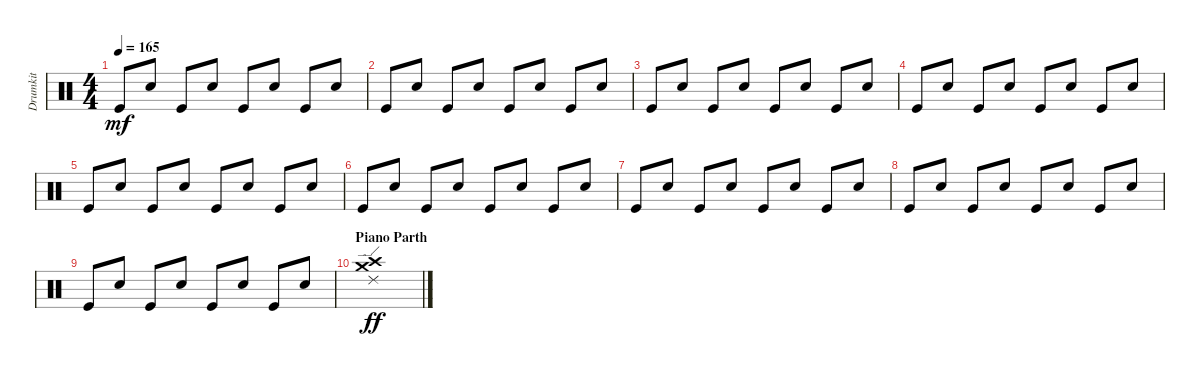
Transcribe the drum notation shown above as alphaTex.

\track ("Drumkit" "Drumkit") {instrument percussion}
\staff {score}
\articulation defaults
\ts (4 4)
\tempo 165
\clef neutral
\ks c "Kick (hit)".8{dy mf} "Electric Snare (hit)".8 "Kick (hit)".8 "Electric Snare (hit)".8 "Kick (hit)".8 "Electric Snare (hit)".8 "Kick (hit)".8 "Electric Snare (hit)".8
|
"Kick (hit)".8 "Electric Snare (hit)".8 "Kick (hit)".8 "Electric Snare (hit)".8 "Kick (hit)".8 "Electric Snare (hit)".8 "Kick (hit)".8 "Electric Snare (hit)".8 |
"Kick (hit)".8 "Electric Snare (hit)".8 "Kick (hit)".8 "Electric Snare (hit)".8 "Kick (hit)".8 "Electric Snare (hit)".8 "Kick (hit)".8 "Electric Snare (hit)".8 |
"Kick (hit)".8 "Electric Snare (hit)".8 "Kick (hit)".8 "Electric Snare (hit)".8 "Kick (hit)".8 "Electric Snare (hit)".8 "Kick (hit)".8 "Electric Snare (hit)".8 |
"Kick (hit)".8 "Electric Snare (hit)".8 "Kick (hit)".8 "Electric Snare (hit)".8 "Kick (hit)".8 "Electric Snare (hit)".8 "Kick (hit)".8 "Electric Snare (hit)".8 |
"Kick (hit)".8 "Electric Snare (hit)".8 "Kick (hit)".8 "Electric Snare (hit)".8 "Kick (hit)".8 "Electric Snare (hit)".8 "Kick (hit)".8 "Electric Snare (hit)".8 |
"Kick (hit)".8 "Electric Snare (hit)".8 "Kick (hit)".8 "Electric Snare (hit)".8 "Kick (hit)".8 "Electric Snare (hit)".8 "Kick (hit)".8 "Electric Snare (hit)".8 |
"Kick (hit)".8 "Electric Snare (hit)".8 "Kick (hit)".8 "Electric Snare (hit)".8 "Kick (hit)".8 "Electric Snare (hit)".8 "Kick (hit)".8 "Electric Snare (hit)".8 |
"Kick (hit)".8 "Electric Snare (hit)".8 "Kick (hit)".8 "Electric Snare (hit)".8 "Kick (hit)".8 "Electric Snare (hit)".8 "Kick (hit)".8 "Electric Snare (hit)".8 |
\section ("" "Piano Parth")
("Crash high (hit)" "Ride (edge) 2" "Crash medium (hit)").1{dy ff}
